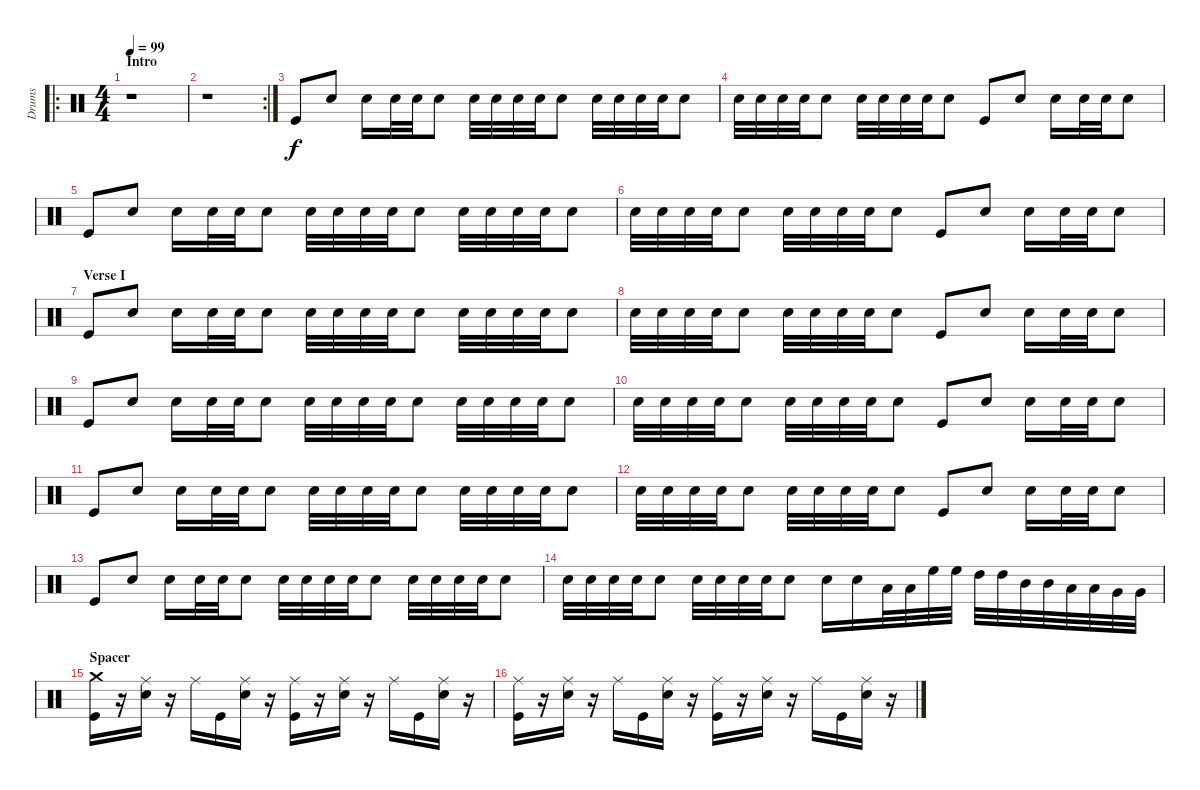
\track ("Drums" "Drums") {instrument percussion}
\staff {score}
\articulation defaults
\ro
\ts (4 4)
\section ("" "Intro")
\tempo 99
\clef neutral
\ks c
r.1{dy f} |
\rc 2
r.1 |
"Kick (hit)".8 "Electric Snare (hit)".8 "Electric Snare (hit)".16 "Electric Snare (hit)".32 "Electric Snare (hit)".32 "Electric Snare (hit)".8 "Electric Snare (hit)".32 "Electric Snare (hit)".32 "Electric Snare (hit)".32 "Electric Snare (hit)".32 "Electric Snare (hit)".8 "Electric Snare (hit)".32 "Electric Snare (hit)".32 "Electric Snare (hit)".32 "Electric Snare (hit)".32 "Electric Snare (hit)".8 |
"Electric Snare (hit)".32 "Electric Snare (hit)".32 "Electric Snare (hit)".32 "Electric Snare (hit)".32 "Electric Snare (hit)".8 "Electric Snare (hit)".32 "Electric Snare (hit)".32 "Electric Snare (hit)".32 "Electric Snare (hit)".32 "Electric Snare (hit)".8 "Kick (hit)".8 "Electric Snare (hit)".8 "Electric Snare (hit)".16 "Electric Snare (hit)".32 "Electric Snare (hit)".32 "Electric Snare (hit)".8 |
"Kick (hit)".8 "Electric Snare (hit)".8 "Electric Snare (hit)".16 "Electric Snare (hit)".32 "Electric Snare (hit)".32 "Electric Snare (hit)".8 "Electric Snare (hit)".32 "Electric Snare (hit)".32 "Electric Snare (hit)".32 "Electric Snare (hit)".32 "Electric Snare (hit)".8 "Electric Snare (hit)".32 "Electric Snare (hit)".32 "Electric Snare (hit)".32 "Electric Snare (hit)".32 "Electric Snare (hit)".8 |
"Electric Snare (hit)".32 "Electric Snare (hit)".32 "Electric Snare (hit)".32 "Electric Snare (hit)".32 "Electric Snare (hit)".8 "Electric Snare (hit)".32 "Electric Snare (hit)".32 "Electric Snare (hit)".32 "Electric Snare (hit)".32 "Electric Snare (hit)".8 "Kick (hit)".8 "Electric Snare (hit)".8 "Electric Snare (hit)".16 "Electric Snare (hit)".32 "Electric Snare (hit)".32 "Electric Snare (hit)".8 |
\section ("" "Verse I")
"Kick (hit)".8 "Electric Snare (hit)".8 "Electric Snare (hit)".16 "Electric Snare (hit)".32 "Electric Snare (hit)".32 "Electric Snare (hit)".8 "Electric Snare (hit)".32 "Electric Snare (hit)".32 "Electric Snare (hit)".32 "Electric Snare (hit)".32 "Electric Snare (hit)".8 "Electric Snare (hit)".32 "Electric Snare (hit)".32 "Electric Snare (hit)".32 "Electric Snare (hit)".32 "Electric Snare (hit)".8 |
"Electric Snare (hit)".32 "Electric Snare (hit)".32 "Electric Snare (hit)".32 "Electric Snare (hit)".32 "Electric Snare (hit)".8 "Electric Snare (hit)".32 "Electric Snare (hit)".32 "Electric Snare (hit)".32 "Electric Snare (hit)".32 "Electric Snare (hit)".8 "Kick (hit)".8 "Electric Snare (hit)".8 "Electric Snare (hit)".16 "Electric Snare (hit)".32 "Electric Snare (hit)".32 "Electric Snare (hit)".8 |
"Kick (hit)".8 "Electric Snare (hit)".8 "Electric Snare (hit)".16 "Electric Snare (hit)".32 "Electric Snare (hit)".32 "Electric Snare (hit)".8 "Electric Snare (hit)".32 "Electric Snare (hit)".32 "Electric Snare (hit)".32 "Electric Snare (hit)".32 "Electric Snare (hit)".8 "Electric Snare (hit)".32 "Electric Snare (hit)".32 "Electric Snare (hit)".32 "Electric Snare (hit)".32 "Electric Snare (hit)".8 |
"Electric Snare (hit)".32 "Electric Snare (hit)".32 "Electric Snare (hit)".32 "Electric Snare (hit)".32 "Electric Snare (hit)".8 "Electric Snare (hit)".32 "Electric Snare (hit)".32 "Electric Snare (hit)".32 "Electric Snare (hit)".32 "Electric Snare (hit)".8 "Kick (hit)".8 "Electric Snare (hit)".8 "Electric Snare (hit)".16 "Electric Snare (hit)".32 "Electric Snare (hit)".32 "Electric Snare (hit)".8 |
"Kick (hit)".8 "Electric Snare (hit)".8 "Electric Snare (hit)".16 "Electric Snare (hit)".32 "Electric Snare (hit)".32 "Electric Snare (hit)".8 "Electric Snare (hit)".32 "Electric Snare (hit)".32 "Electric Snare (hit)".32 "Electric Snare (hit)".32 "Electric Snare (hit)".8 "Electric Snare (hit)".32 "Electric Snare (hit)".32 "Electric Snare (hit)".32 "Electric Snare (hit)".32 "Electric Snare (hit)".8 |
"Electric Snare (hit)".32 "Electric Snare (hit)".32 "Electric Snare (hit)".32 "Electric Snare (hit)".32 "Electric Snare (hit)".8 "Electric Snare (hit)".32 "Electric Snare (hit)".32 "Electric Snare (hit)".32 "Electric Snare (hit)".32 "Electric Snare (hit)".8 "Kick (hit)".8 "Electric Snare (hit)".8 "Electric Snare (hit)".16 "Electric Snare (hit)".32 "Electric Snare (hit)".32 "Electric Snare (hit)".8 |
"Kick (hit)".8 "Electric Snare (hit)".8 "Electric Snare (hit)".16 "Electric Snare (hit)".32 "Electric Snare (hit)".32 "Electric Snare (hit)".8 "Electric Snare (hit)".32 "Electric Snare (hit)".32 "Electric Snare (hit)".32 "Electric Snare (hit)".32 "Electric Snare (hit)".8 "Electric Snare (hit)".32 "Electric Snare (hit)".32 "Electric Snare (hit)".32 "Electric Snare (hit)".32 "Electric Snare (hit)".8 |
"Electric Snare (hit)".32 "Electric Snare (hit)".32 "Electric Snare (hit)".32 "Electric Snare (hit)".32 "Electric Snare (hit)".8 "Electric Snare (hit)".32 "Electric Snare (hit)".32 "Electric Snare (hit)".32 "Electric Snare (hit)".32 "Electric Snare (hit)".8 "Electric Snare (hit)".16 "Electric Snare (hit)".16 "Low Floor Tom (hit)".32 "Low Floor Tom (hit)".32 "High Floor Tom (hit)".32 "High Floor Tom (hit)".32 "High Tom (hit)".32 "High Tom (hit)".32 "Mid Tom (hit)".32 "Mid Tom (hit)".32 "Low Tom (hit)".32 "Low Tom (hit)".32 "Very Low Tom (hit)".32 "Very Low Tom (hit)".32 |
\section ("" "Spacer")
("Crash medium (hit)" "Kick (hit)").16 r.16 ("Ride (middle)" "Electric Snare (hit)").16 r.16 "Ride (middle)".16 "Kick (hit)".16 ("Ride (middle)" "Electric Snare (hit)").16 r.16 ("Ride (middle)" "Kick (hit)").16 r.16 ("Ride (middle)" "Electric Snare (hit)").16 r.16 "Ride (middle)".16 "Kick (hit)".16 ("Ride (middle)" "Electric Snare (hit)").16 r.16 |
("Ride (middle)" "Kick (hit)").16 r.16 ("Ride (middle)" "Electric Snare (hit)").16 r.16 "Ride (middle)".16 "Kick (hit)".16 ("Ride (middle)" "Electric Snare (hit)").16 r.16 ("Ride (middle)" "Kick (hit)").16 r.16 ("Ride (middle)" "Electric Snare (hit)").16 r.16 "Ride (middle)".16 "Kick (hit)".16 ("Ride (middle)" "Electric Snare (hit)").16 r.16
